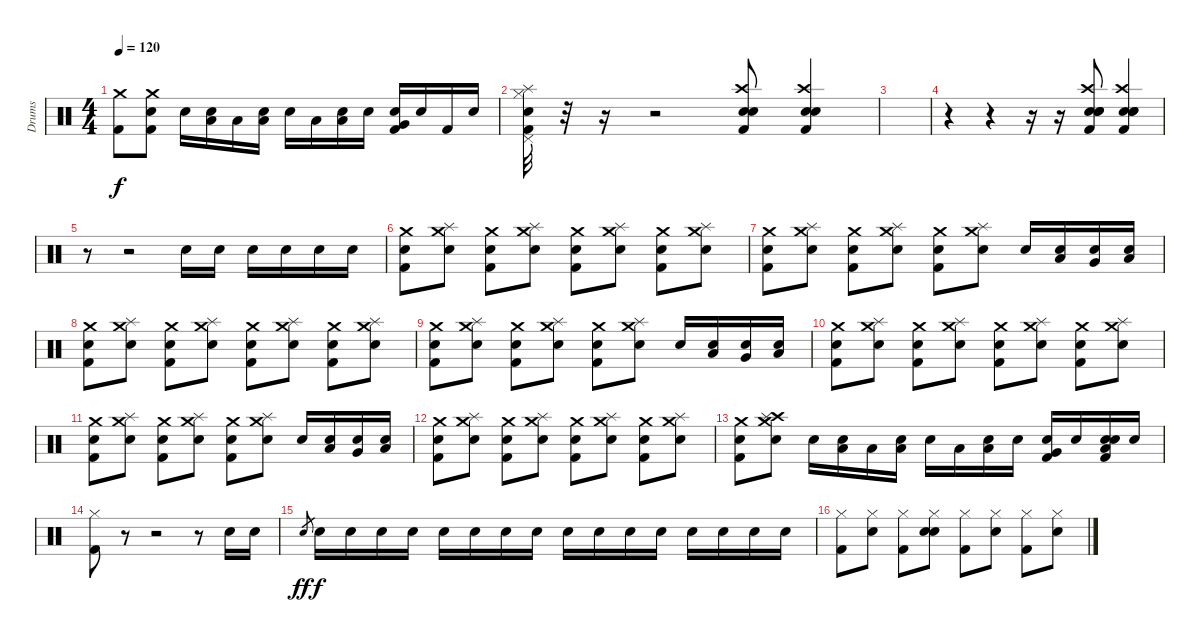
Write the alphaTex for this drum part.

\track ("Drums" "Drums") {instrument percussion}
\staff {score}
\articulation defaults
\ts (4 4)
\tempo 120
\clef neutral
\ks c
("Crash medium (hit)" "Kick (hit) 2").8{dy f} ("Crash medium (hit)" "Snare (hit) 2" "Kick (hit) 2").8 "Snare (hit) 2".16 ("Snare (hit) 2" "Low Tom (hit)").16 "Low Tom (hit)".16 ("Snare (hit) 2" "Low Tom (hit)").16 "Snare (hit) 2".16 "Low Tom (hit)".16 ("Snare (hit) 2" "Low Tom (hit)").16 "Snare (hit) 2".16 ("Snare (hit) 2" "Very Low Tom (hit)" "Kick (hit) 2").16 "Snare (hit) 2".16 "Kick (hit) 2".16 "Snare (hit) 2".16 |
("Splash (hit)" "Pedal Hi-Hat (hit)" "Hi-Hat (closed)" "Snare (hit) 2" "Kick (hit) 2").32 r.32 r.16 r.2 ("Crash high (hit)" "Hand Clap (hit)" "Snare (hit) 2" "Kick (hit) 2").8 ("Crash high (hit)" "Hand Clap (hit)" "Snare (hit) 2" "Kick (hit) 2").4 |
|
r.4 r.4 r.16 r.16 ("Hand Clap (hit)" "Crash high (hit)" "Hand Clap (hit)" "Snare (hit) 2" "Kick (hit) 2").8 ("Hand Clap (hit)" "Crash high (hit)" "Hand Clap (hit)" "Snare (hit) 2" "Kick (hit) 2").4 |
r.8 r.2 "Snare (hit) 2".16 "Snare (hit) 2".16 "Snare (hit) 2".16 "Snare (hit) 2".16 "Snare (hit) 2".16 "Snare (hit) 2".16 |
("Crash medium (hit)" "Snare (hit)" "Kick (hit) 2").8 ("Crash medium (hit)" "Splash (hit)" "Snare (hit) 2").8 ("Crash medium (hit)" "Snare (hit)" "Kick (hit) 2").8 ("Crash medium (hit)" "Splash (hit)" "Snare (hit) 2").8 ("Crash medium (hit)" "Snare (hit)" "Kick (hit) 2").8 ("Crash medium (hit)" "Splash (hit)" "Snare (hit) 2").8 ("Crash medium (hit)" "Snare (hit)" "Kick (hit) 2").8 ("Crash medium (hit)" "Splash (hit)" "Snare (hit) 2").8 |
("Crash medium (hit)" "Snare (hit)" "Kick (hit) 2").8 ("Crash medium (hit)" "Splash (hit)" "Snare (hit) 2").8 ("Crash medium (hit)" "Snare (hit)" "Kick (hit) 2").8 ("Crash medium (hit)" "Splash (hit)" "Snare (hit) 2").8 ("Crash medium (hit)" "Snare (hit)" "Kick (hit) 2").8 ("Crash medium (hit)" "Splash (hit)" "Snare (hit) 2").8 "Snare (hit) 2".16 ("Low Tom (hit)" "Snare (hit) 2").16 ("Very Low Tom (hit)" "Snare (hit) 2").16 ("Low Floor Tom (hit)" "Snare (hit) 2").16 |
("Crash medium (hit)" "Snare (hit)" "Kick (hit) 2").8 ("Crash medium (hit)" "Splash (hit)" "Snare (hit) 2").8 ("Crash medium (hit)" "Snare (hit)" "Kick (hit) 2").8 ("Crash medium (hit)" "Splash (hit)" "Snare (hit) 2").8 ("Crash medium (hit)" "Snare (hit)" "Kick (hit) 2").8 ("Crash medium (hit)" "Splash (hit)" "Snare (hit) 2").8 ("Crash medium (hit)" "Snare (hit)" "Kick (hit) 2").8 ("Crash medium (hit)" "Splash (hit)" "Snare (hit) 2").8 |
("Crash medium (hit)" "Snare (hit)" "Kick (hit) 2").8 ("Crash medium (hit)" "Splash (hit)" "Snare (hit) 2").8 ("Crash medium (hit)" "Snare (hit)" "Kick (hit) 2").8 ("Crash medium (hit)" "Splash (hit)" "Snare (hit) 2").8 ("Crash medium (hit)" "Snare (hit)" "Kick (hit) 2").8 ("Crash medium (hit)" "Splash (hit)" "Snare (hit) 2").8 "Snare (hit) 2".16 ("Low Tom (hit)" "Snare (hit) 2").16 ("Very Low Tom (hit)" "Snare (hit) 2").16 ("Low Floor Tom (hit)" "Snare (hit) 2").16 |
("Crash medium (hit)" "Snare (hit)" "Kick (hit) 2").8 ("Crash medium (hit)" "Splash (hit)" "Snare (hit) 2").8 ("Crash medium (hit)" "Snare (hit)" "Kick (hit) 2").8 ("Crash medium (hit)" "Splash (hit)" "Snare (hit) 2").8 ("Crash medium (hit)" "Snare (hit)" "Kick (hit) 2").8 ("Crash medium (hit)" "Splash (hit)" "Snare (hit) 2").8 ("Crash medium (hit)" "Snare (hit)" "Kick (hit) 2").8 ("Crash medium (hit)" "Splash (hit)" "Snare (hit) 2").8 |
("Crash medium (hit)" "Snare (hit)" "Kick (hit) 2").8 ("Crash medium (hit)" "Splash (hit)" "Snare (hit) 2").8 ("Crash medium (hit)" "Snare (hit)" "Kick (hit) 2").8 ("Crash medium (hit)" "Splash (hit)" "Snare (hit) 2").8 ("Crash medium (hit)" "Snare (hit)" "Kick (hit) 2").8 ("Crash medium (hit)" "Splash (hit)" "Snare (hit) 2").8 "Snare (hit) 2".16 ("Low Tom (hit)" "Snare (hit) 2").16 ("Very Low Tom (hit)" "Snare (hit) 2").16 ("Low Floor Tom (hit)" "Snare (hit) 2").16 |
("Crash medium (hit)" "Snare (hit)" "Kick (hit) 2").8 ("Crash medium (hit)" "Splash (hit)" "Snare (hit) 2").8 ("Crash medium (hit)" "Snare (hit)" "Kick (hit) 2").8 ("Crash medium (hit)" "Splash (hit)" "Snare (hit) 2").8 ("Crash medium (hit)" "Snare (hit)" "Kick (hit) 2").8 ("Crash medium (hit)" "Splash (hit)" "Snare (hit) 2").8 ("Crash medium (hit)" "Snare (hit)" "Kick (hit) 2").8 ("Crash medium (hit)" "Splash (hit)" "Snare (hit) 2").8 |
("Crash medium (hit)" "Snare (hit)" "Kick (hit) 2").8 ("Crash medium (hit)" "Crash high (hit)" "Splash (hit)" "Snare (hit) 2").8 "Snare (hit) 2".16 ("Snare (hit) 2" "Low Tom (hit)").16 "Low Tom (hit)".16 ("Snare (hit) 2" "Low Tom (hit)").16 "Snare (hit) 2".16 "Low Tom (hit)".16 ("Snare (hit) 2" "Low Tom (hit)").16 "Snare (hit) 2".16 ("Snare (hit) 2" "Very Low Tom (hit)" "Kick (hit) 2").16 "Snare (hit) 2".16 ("Electric Snare (hit)" "Low Floor Tom (hit)" "Snare (hit) 2" "Kick (hit) 2").16 "Snare (hit) 2".16 |
("Hi-Hat (closed)" "Kick (hit) 2").8 r.8 r.2 r.8 "Snare (hit) 2".16 "Snare (hit) 2".16 |
"Snare (hit) 2".8{gr dy ff} "Snare (hit) 2".16{dy f} "Snare (hit) 2".16 "Snare (hit) 2".16 "Snare (hit) 2".16 "Snare (hit) 2".16 "Snare (hit) 2".16 "Snare (hit) 2".16 "Snare (hit) 2".16 "Snare (hit) 2".16 "Snare (hit) 2".16 "Snare (hit) 2".16 "Snare (hit) 2".16 "Snare (hit) 2".16 "Snare (hit) 2".16 "Snare (hit) 2".16 "Snare (hit) 2".16 |
("Hi-Hat (closed)" "Kick (hit) 2").8 ("Hi-Hat (closed)" "Snare (hit) 2").8 ("Hi-Hat (closed)" "Kick (hit) 2").8 ("Hi-Hat (closed)" "Snare (hit) 2" "Snare (hit)").8 ("Hi-Hat (closed)" "Kick (hit) 2").8 ("Hi-Hat (closed)" "Snare (hit) 2").8 ("Hi-Hat (closed)" "Kick (hit) 2").8 ("Hi-Hat (closed)" "Snare (hit) 2").8
